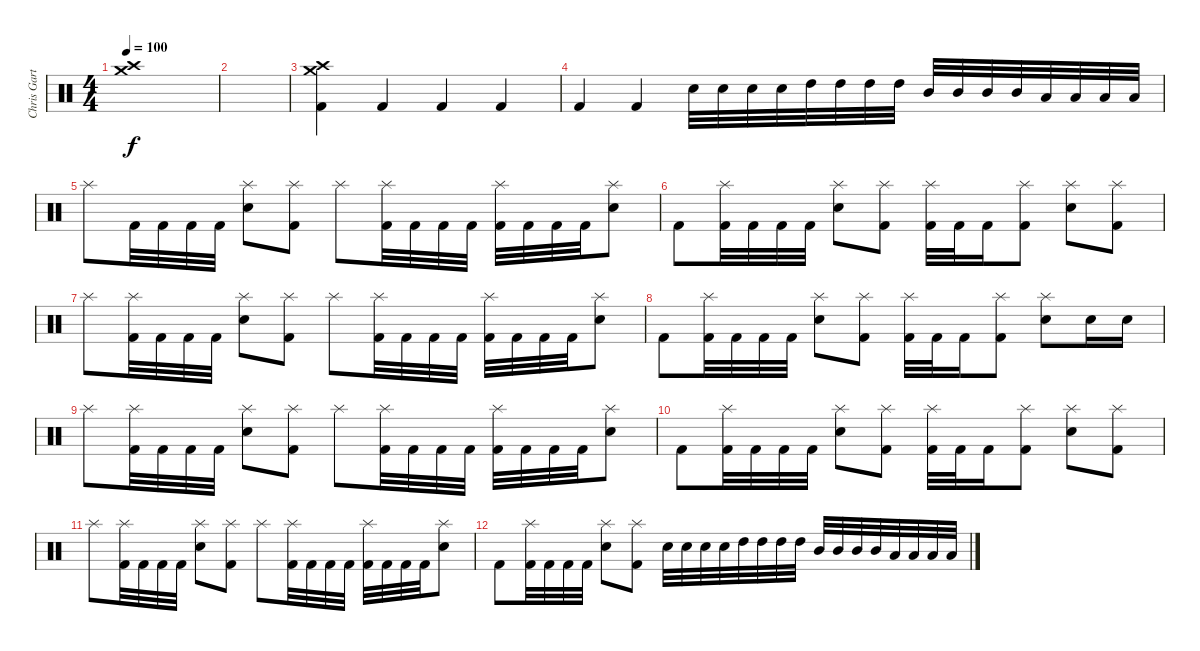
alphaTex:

\track ("Chris Gartmann" "Chris Gart") {instrument percussion}
\staff {score}
\articulation defaults
\ts (4 4)
\tempo 100
\clef neutral
\ks c
("Crash high (hit)" "Crash medium (hit)").1{dy f} |
|
("Crash high (hit)" "Crash medium (hit)" "Kick (hit) 2").4 "Kick (hit) 2".4 "Kick (hit) 2".4 "Kick (hit) 2".4 |
"Kick (hit) 2".4 "Kick (hit) 2".4 "Electric Snare (hit)".32 "Electric Snare (hit)".32 "Electric Snare (hit)".32 "Electric Snare (hit)".32 "High Tom (hit)".32 "High Tom (hit)".32 "High Tom (hit)".32 "High Tom (hit)".32 "Mid Tom (hit)".32 "Mid Tom (hit)".32 "Mid Tom (hit)".32 "Mid Tom (hit)".32 "Low Tom (hit)".32 "Low Tom (hit)".32 "Low Tom (hit)".32 "Low Tom (hit)".32 |
"Splash (hit)".8 "Kick (hit) 2".32 "Kick (hit) 2".32 "Kick (hit) 2".32 "Kick (hit) 2".32 ("Splash (hit)" "Electric Snare (hit)").8 ("Splash (hit)" "Kick (hit) 2").8 "Splash (hit)".8 ("Splash (hit)" "Kick (hit) 2").32 "Kick (hit) 2".32 "Kick (hit) 2".32 "Kick (hit) 2".32 ("Splash (hit)" "Kick (hit) 2").32 "Kick (hit) 2".32 "Kick (hit) 2".32 "Kick (hit) 2".32 ("Splash (hit)" "Electric Snare (hit)").8 |
"Kick (hit) 2".8 ("Splash (hit)" "Kick (hit) 2").32 "Kick (hit) 2".32 "Kick (hit) 2".32 "Kick (hit) 2".32 ("Splash (hit)" "Electric Snare (hit)").8 ("Splash (hit)" "Kick (hit) 2").8 ("Splash (hit)" "Kick (hit) 2").32 "Kick (hit) 2".32 "Kick (hit) 2".16 ("Splash (hit)" "Kick (hit) 2").8 ("Splash (hit)" "Electric Snare (hit)").8 ("Splash (hit)" "Kick (hit) 2").8 |
"Splash (hit)".8 ("Splash (hit)" "Kick (hit) 2").32 "Kick (hit) 2".32 "Kick (hit) 2".32 "Kick (hit) 2".32 ("Splash (hit)" "Electric Snare (hit)").8 ("Splash (hit)" "Kick (hit) 2").8 "Splash (hit)".8 ("Splash (hit)" "Kick (hit) 2").32 "Kick (hit) 2".32 "Kick (hit) 2".32 "Kick (hit) 2".32 ("Splash (hit)" "Kick (hit) 2").32 "Kick (hit) 2".32 "Kick (hit) 2".32 "Kick (hit) 2".32 ("Splash (hit)" "Electric Snare (hit)").8 |
"Kick (hit) 2".8 ("Splash (hit)" "Kick (hit) 2").32 "Kick (hit) 2".32 "Kick (hit) 2".32 "Kick (hit) 2".32 ("Splash (hit)" "Electric Snare (hit)").8 ("Splash (hit)" "Kick (hit) 2").8 ("Splash (hit)" "Kick (hit) 2").32 "Kick (hit) 2".32 "Kick (hit) 2".16 ("Splash (hit)" "Kick (hit) 2").8 ("Splash (hit)" "Electric Snare (hit)").8 "Electric Snare (hit)".16 "Electric Snare (hit)".16 |
"Splash (hit)".8 ("Splash (hit)" "Kick (hit) 2").32 "Kick (hit) 2".32 "Kick (hit) 2".32 "Kick (hit) 2".32 ("Splash (hit)" "Electric Snare (hit)").8 ("Splash (hit)" "Kick (hit) 2").8 "Splash (hit)".8 ("Splash (hit)" "Kick (hit) 2").32 "Kick (hit) 2".32 "Kick (hit) 2".32 "Kick (hit) 2".32 ("Splash (hit)" "Kick (hit) 2").32 "Kick (hit) 2".32 "Kick (hit) 2".32 "Kick (hit) 2".32 ("Splash (hit)" "Electric Snare (hit)").8 |
"Kick (hit) 2".8 ("Splash (hit)" "Kick (hit) 2").32 "Kick (hit) 2".32 "Kick (hit) 2".32 "Kick (hit) 2".32 ("Splash (hit)" "Electric Snare (hit)").8 ("Splash (hit)" "Kick (hit) 2").8 ("Splash (hit)" "Kick (hit) 2").32 "Kick (hit) 2".32 "Kick (hit) 2".16 ("Splash (hit)" "Kick (hit) 2").8 ("Splash (hit)" "Electric Snare (hit)").8 ("Splash (hit)" "Kick (hit) 2").8 |
"Splash (hit)".8 ("Splash (hit)" "Kick (hit) 2").32 "Kick (hit) 2".32 "Kick (hit) 2".32 "Kick (hit) 2".32 ("Splash (hit)" "Electric Snare (hit)").8 ("Splash (hit)" "Kick (hit) 2").8 "Splash (hit)".8 ("Splash (hit)" "Kick (hit) 2").32 "Kick (hit) 2".32 "Kick (hit) 2".32 "Kick (hit) 2".32 ("Splash (hit)" "Kick (hit) 2").32 "Kick (hit) 2".32 "Kick (hit) 2".32 "Kick (hit) 2".32 ("Splash (hit)" "Electric Snare (hit)").8 |
"Kick (hit) 2".8 ("Splash (hit)" "Kick (hit) 2").32 "Kick (hit) 2".32 "Kick (hit) 2".32 "Kick (hit) 2".32 ("Splash (hit)" "Electric Snare (hit)").8 ("Splash (hit)" "Kick (hit) 2").8 "Electric Snare (hit)".32 "Electric Snare (hit)".32 "Electric Snare (hit)".32 "Electric Snare (hit)".32 "High Tom (hit)".32 "High Tom (hit)".32 "High Tom (hit)".32 "High Tom (hit)".32 "Mid Tom (hit)".32 "Mid Tom (hit)".32 "Mid Tom (hit)".32 "Mid Tom (hit)".32 "Low Tom (hit)".32 "Low Tom (hit)".32 "Low Tom (hit)".32 "Low Tom (hit)".32
